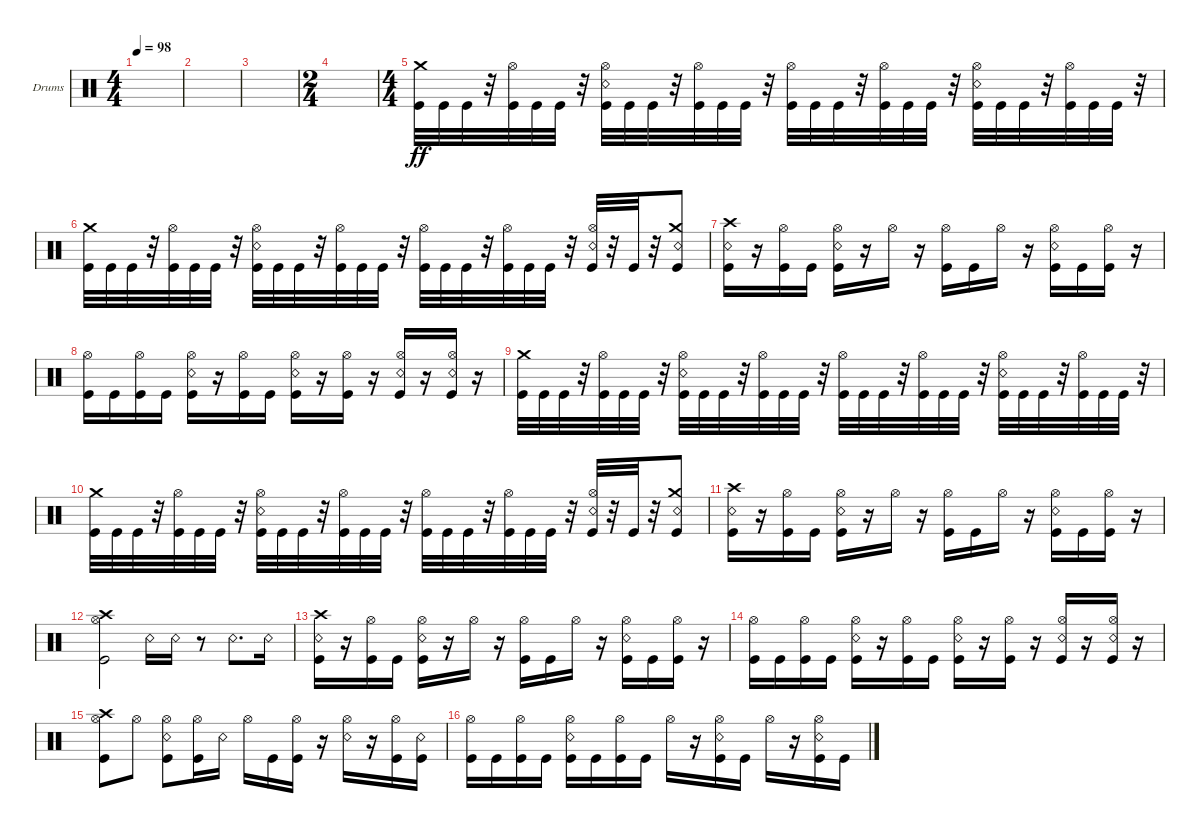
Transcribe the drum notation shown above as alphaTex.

\bracketExtendMode groupsimilarinstruments
\firstSystemTrackNameOrientation horizontal
\otherSystemsTrackNameOrientation horizontal
\track ("Drumkit" "Drums") {instrument percussion}
\staff {score}
\articulation defaults
\ts (4 4)
\tempo 98
\clef neutral
\ks c
|
|
|
\ts (2 4)
|
\ts (4 4)
("Kick (hit)" "Crash medium (hit)").32{dy ff} "Kick (hit)".32 "Kick (hit)".32 r.32 ("Kick (hit)" "Hi-Hat (open)").32 "Kick (hit)".32 "Kick (hit)".32 r.32 ("Kick (hit)" "Hi-Hat (open)" "Snare (rim shot)").32 "Kick (hit)".32 "Kick (hit)".32 r.32 ("Kick (hit)" "Hi-Hat (open)").32 "Kick (hit)".32 "Kick (hit)".32 r.32 ("Kick (hit)" "Hi-Hat (open)").32 "Kick (hit)".32 "Kick (hit)".32 r.32 ("Kick (hit)" "Hi-Hat (open)").32 "Kick (hit)".32 "Kick (hit)".32 r.32 ("Kick (hit)" "Hi-Hat (open)" "Snare (rim shot)").32 "Kick (hit)".32 "Kick (hit)".32 r.32 ("Kick (hit)" "Hi-Hat (open)").32 "Kick (hit)".32 "Kick (hit)".32 r.32 |
("Kick (hit)" "Crash medium (hit)").32 "Kick (hit)".32 "Kick (hit)".32 r.32 ("Kick (hit)" "Hi-Hat (open)").32 "Kick (hit)".32 "Kick (hit)".32 r.32 ("Kick (hit)" "Hi-Hat (open)" "Snare (rim shot)").32 "Kick (hit)".32 "Kick (hit)".32 r.32 ("Kick (hit)" "Hi-Hat (open)").32 "Kick (hit)".32 "Kick (hit)".32 r.32 ("Kick (hit)" "Hi-Hat (open)").32 "Kick (hit)".32 "Kick (hit)".32 r.32 ("Kick (hit)" "Hi-Hat (open)").32 "Kick (hit)".32 "Kick (hit)".32 r.32 ("Kick (hit)" "Hi-Hat (open)" "Snare (rim shot)").32 r.32 "Kick (hit)".32 r.32 ("Kick (hit)" "Snare (rim shot)" "Crash medium (hit)").8 |
("Crash high (hit)" "Snare (rim shot)" "Kick (hit)").16 r.16 ("Kick (hit)" "Hi-Hat (open)").16 "Kick (hit)".16 ("Kick (hit)" "Hi-Hat (open)" "Snare (rim shot)").16 r.16 "Hi-Hat (open)".16 r.16 ("Kick (hit)" "Hi-Hat (open)").16 "Kick (hit)".16 "Hi-Hat (open)".16 r.16 ("Kick (hit)" "Hi-Hat (open)" "Snare (rim shot)").16 "Kick (hit)".16 ("Kick (hit)" "Hi-Hat (open)").16 r.16 |
("Kick (hit)" "Hi-Hat (open)").16 "Kick (hit)".16 ("Kick (hit)" "Hi-Hat (open)").16 "Kick (hit)".16 ("Kick (hit)" "Hi-Hat (open)" "Snare (rim shot)").16 r.16 ("Kick (hit)" "Hi-Hat (open)").16 "Kick (hit)".16 ("Kick (hit)" "Hi-Hat (open)" "Snare (rim shot)").16 r.16 ("Kick (hit)" "Hi-Hat (open)").16 r.16 ("Kick (hit)" "Hi-Hat (open)" "Snare (rim shot)").16 r.16 ("Kick (hit)" "Hi-Hat (open)" "Snare (rim shot)").16 r.16 |
("Kick (hit)" "Crash medium (hit)").32 "Kick (hit)".32 "Kick (hit)".32 r.32 ("Kick (hit)" "Hi-Hat (open)").32 "Kick (hit)".32 "Kick (hit)".32 r.32 ("Kick (hit)" "Hi-Hat (open)" "Snare (rim shot)").32 "Kick (hit)".32 "Kick (hit)".32 r.32 ("Kick (hit)" "Hi-Hat (open)").32 "Kick (hit)".32 "Kick (hit)".32 r.32 ("Kick (hit)" "Hi-Hat (open)").32 "Kick (hit)".32 "Kick (hit)".32 r.32 ("Kick (hit)" "Hi-Hat (open)").32 "Kick (hit)".32 "Kick (hit)".32 r.32 ("Kick (hit)" "Hi-Hat (open)" "Snare (rim shot)").32 "Kick (hit)".32 "Kick (hit)".32 r.32 ("Kick (hit)" "Hi-Hat (open)").32 "Kick (hit)".32 "Kick (hit)".32 r.32 |
("Kick (hit)" "Crash medium (hit)").32 "Kick (hit)".32 "Kick (hit)".32 r.32 ("Kick (hit)" "Hi-Hat (open)").32 "Kick (hit)".32 "Kick (hit)".32 r.32 ("Kick (hit)" "Hi-Hat (open)" "Snare (rim shot)").32 "Kick (hit)".32 "Kick (hit)".32 r.32 ("Kick (hit)" "Hi-Hat (open)").32 "Kick (hit)".32 "Kick (hit)".32 r.32 ("Kick (hit)" "Hi-Hat (open)").32 "Kick (hit)".32 "Kick (hit)".32 r.32 ("Kick (hit)" "Hi-Hat (open)").32 "Kick (hit)".32 "Kick (hit)".32 r.32 ("Kick (hit)" "Hi-Hat (open)" "Snare (rim shot)").32 r.32 "Kick (hit)".32 r.32 ("Kick (hit)" "Snare (rim shot)" "Crash medium (hit)").8 |
("Crash high (hit)" "Snare (rim shot)" "Kick (hit)").16 r.16 ("Kick (hit)" "Hi-Hat (open)").16 "Kick (hit)".16 ("Kick (hit)" "Hi-Hat (open)" "Snare (rim shot)").16 r.16 "Hi-Hat (open)".16 r.16 ("Kick (hit)" "Hi-Hat (open)").16 "Kick (hit)".16 "Hi-Hat (open)".16 r.16 ("Kick (hit)" "Hi-Hat (open)" "Snare (rim shot)").16 "Kick (hit)".16 ("Kick (hit)" "Hi-Hat (open)").16 r.16 |
("Kick (hit)" "Hi-Hat (open)" "Crash high (hit)").2 "Snare (rim shot)".16 "Snare (rim shot)".16 r.8 "Snare (rim shot)".8{d} "Snare (rim shot)".16 |
("Crash high (hit)" "Kick (hit)" "Snare (rim shot)").16 r.16 ("Kick (hit)" "Hi-Hat (open)").16 "Kick (hit)".16 ("Kick (hit)" "Hi-Hat (open)" "Snare (rim shot)").16 r.16 "Hi-Hat (open)".16 r.16 ("Kick (hit)" "Hi-Hat (open)").16 "Kick (hit)".16 "Hi-Hat (open)".16 r.16 ("Kick (hit)" "Hi-Hat (open)" "Snare (rim shot)").16 "Kick (hit)".16 ("Kick (hit)" "Hi-Hat (open)").16 r.16 |
("Kick (hit)" "Hi-Hat (open)").16 "Kick (hit)".16 ("Kick (hit)" "Hi-Hat (open)").16 "Kick (hit)".16 ("Kick (hit)" "Hi-Hat (open)" "Snare (rim shot)").16 r.16 ("Kick (hit)" "Hi-Hat (open)").16 "Kick (hit)".16 ("Kick (hit)" "Hi-Hat (open)" "Snare (rim shot)").16 r.16 ("Kick (hit)" "Hi-Hat (open)").16 r.16 ("Kick (hit)" "Hi-Hat (open)" "Snare (rim shot)").16 r.16 ("Kick (hit)" "Hi-Hat (open)" "Snare (rim shot)").16 r.16 |
("Kick (hit)" "Hi-Hat (open)" "Crash high (hit)").8 "Hi-Hat (open)".8 ("Kick (hit)" "Hi-Hat (open)" "Snare (rim shot)").8 ("Kick (hit)" "Hi-Hat (open)").16 "Snare (rim shot)".16 "Hi-Hat (open)".16 "Kick (hit)".16 ("Kick (hit)" "Hi-Hat (open)").16 r.16 ("Snare (rim shot)" "Hi-Hat (open)").16 r.16 ("Hi-Hat (open)" "Kick (hit)").16 ("Snare (rim shot)" "Kick (hit)").16 |
("Kick (hit)" "Hi-Hat (open)").16 "Kick (hit)".16 ("Kick (hit)" "Hi-Hat (open)").16 "Kick (hit)".16 ("Kick (hit)" "Hi-Hat (open)" "Snare (rim shot)").16 "Kick (hit)".16 ("Kick (hit)" "Hi-Hat (open)").16 "Kick (hit)".16 "Hi-Hat (open)".16 r.16 ("Kick (hit)" "Hi-Hat (open)" "Snare (rim shot)").16 "Kick (hit)".16 "Hi-Hat (open)".16 r.16 ("Kick (hit)" "Snare (rim shot)" "Hi-Hat (open)").16 "Kick (hit)".16
